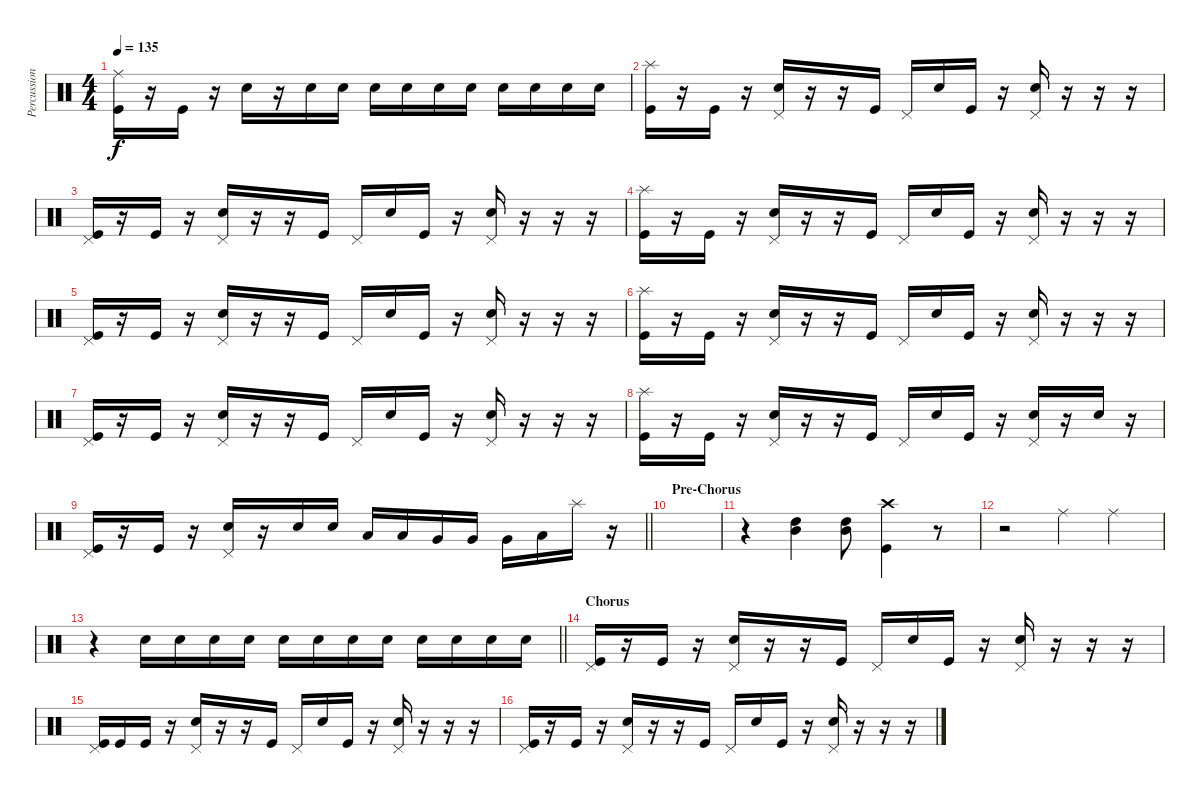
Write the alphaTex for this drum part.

\track ("Percussion" "Percussion") {instrument percussion}
\staff {score}
\articulation defaults
\ts (4 4)
\tempo 135
\clef neutral
\ks c
("Ride (middle)" "Kick (hit)").16{dy f} r.16 "Kick (hit)".16 r.16 "Snare (hit) 2".16 r.16 "Snare (hit) 2".16 "Snare (hit) 2".16 "Snare (hit) 2".16 "Snare (hit) 2".16 "Snare (hit) 2".16 "Snare (hit) 2".16 "Snare (hit) 2".16 "Snare (hit) 2".16 "Snare (hit) 2".16 "Snare (hit) 2".16 |
("Splash (hit)" "Kick (hit)").16 r.16 "Kick (hit)".16 r.16 ("Pedal Hi-Hat (hit)" "Snare (hit) 2").16 r.16 r.16 "Kick (hit)".16 "Pedal Hi-Hat (hit)".16 "Snare (hit) 2".16 "Kick (hit)".16 r.16 ("Pedal Hi-Hat (hit)" "Snare (hit) 2").16 r.16 r.16 r.16 |
("Pedal Hi-Hat (hit)" "Kick (hit)").16 r.16 "Kick (hit)".16 r.16 ("Pedal Hi-Hat (hit)" "Snare (hit) 2").16 r.16 r.16 "Kick (hit)".16 "Pedal Hi-Hat (hit)".16 "Snare (hit) 2".16 "Kick (hit)".16 r.16 ("Pedal Hi-Hat (hit)" "Snare (hit) 2").16 r.16 r.16 r.16 |
("Splash (hit)" "Kick (hit)").16 r.16 "Kick (hit)".16 r.16 ("Pedal Hi-Hat (hit)" "Snare (hit) 2").16 r.16 r.16 "Kick (hit)".16 "Pedal Hi-Hat (hit)".16 "Snare (hit) 2".16 "Kick (hit)".16 r.16 ("Pedal Hi-Hat (hit)" "Snare (hit) 2").16 r.16 r.16 r.16 |
("Pedal Hi-Hat (hit)" "Kick (hit)").16 r.16 "Kick (hit)".16 r.16 ("Pedal Hi-Hat (hit)" "Snare (hit) 2").16 r.16 r.16 "Kick (hit)".16 "Pedal Hi-Hat (hit)".16 "Snare (hit) 2".16 "Kick (hit)".16 r.16 ("Pedal Hi-Hat (hit)" "Snare (hit) 2").16 r.16 r.16 r.16 |
("Splash (hit)" "Kick (hit)").16 r.16 "Kick (hit)".16 r.16 ("Pedal Hi-Hat (hit)" "Snare (hit) 2").16 r.16 r.16 "Kick (hit)".16 "Pedal Hi-Hat (hit)".16 "Snare (hit) 2".16 "Kick (hit)".16 r.16 ("Pedal Hi-Hat (hit)" "Snare (hit) 2").16 r.16 r.16 r.16 |
("Pedal Hi-Hat (hit)" "Kick (hit)").16 r.16 "Kick (hit)".16 r.16 ("Pedal Hi-Hat (hit)" "Snare (hit) 2").16 r.16 r.16 "Kick (hit)".16 "Pedal Hi-Hat (hit)".16 "Snare (hit) 2".16 "Kick (hit)".16 r.16 ("Pedal Hi-Hat (hit)" "Snare (hit) 2").16 r.16 r.16 r.16 |
("Splash (hit)" "Kick (hit)").16 r.16 "Kick (hit)".16 r.16 ("Pedal Hi-Hat (hit)" "Snare (hit) 2").16 r.16 r.16 "Kick (hit)".16 "Pedal Hi-Hat (hit)".16 "Snare (hit) 2".16 "Kick (hit)".16 r.16 ("Pedal Hi-Hat (hit)" "Snare (hit) 2").16 r.16 "Snare (hit) 2".16 r.16 |
\barLineRight lightlight
("Pedal Hi-Hat (hit)" "Kick (hit)").16 r.16 "Kick (hit)".16 r.16 ("Pedal Hi-Hat (hit)" "Snare (hit) 2").16 r.16 "Snare (hit) 2".16 "Snare (hit) 2".16 "Low Tom (hit)".16 "Low Tom (hit)".16 "Very Low Tom (hit)".16 "Very Low Tom (hit)".16 "Very Low Tom (hit)".16 "Low Floor Tom (hit)".16 "Splash (hit)".16 r.16 |
\section ("" "Pre-Chorus")
|
r.4 ("Mid Tom (hit)" "High Tom (hit)").4 ("Mid Tom (hit)" "High Tom (hit)").8 ("Crash high (hit)" "Kick (hit)").4 r.8 |
r.2 "Ride (middle)".4 "Ride (middle)".4 |
\barLineRight lightlight
r.4 "Snare (hit) 2".16 "Snare (hit) 2".16 "Snare (hit) 2".16 "Snare (hit) 2".16 "Snare (hit) 2".16 "Snare (hit) 2".16 "Snare (hit) 2".16 "Snare (hit) 2".16 "Snare (hit) 2".16 "Snare (hit) 2".16 "Snare (hit) 2".16 "Snare (hit) 2".16 |
\section ("" "Chorus")
("Pedal Hi-Hat (hit)" "Kick (hit)").16 r.16 "Kick (hit)".16 r.16 ("Pedal Hi-Hat (hit)" "Snare (hit) 2").16 r.16 r.16 "Kick (hit)".16 "Pedal Hi-Hat (hit)".16 "Snare (hit) 2".16 "Kick (hit)".16 r.16 ("Pedal Hi-Hat (hit)" "Snare (hit) 2").16 r.16 r.16 r.16 |
("Pedal Hi-Hat (hit)" "Kick (hit)").16 "Kick (hit)".16 "Kick (hit)".16 r.16 ("Pedal Hi-Hat (hit)" "Snare (hit) 2").16 r.16 r.16 "Kick (hit)".16 "Pedal Hi-Hat (hit)".16 "Snare (hit) 2".16 "Kick (hit)".16 r.16 ("Pedal Hi-Hat (hit)" "Snare (hit) 2").16 r.16 r.16 r.16 |
("Pedal Hi-Hat (hit)" "Kick (hit)").16 r.16 "Kick (hit)".16 r.16 ("Pedal Hi-Hat (hit)" "Snare (hit) 2").16 r.16 r.16 "Kick (hit)".16 "Pedal Hi-Hat (hit)".16 "Snare (hit) 2".16 "Kick (hit)".16 r.16 ("Pedal Hi-Hat (hit)" "Snare (hit) 2").16 r.16 r.16 r.16
